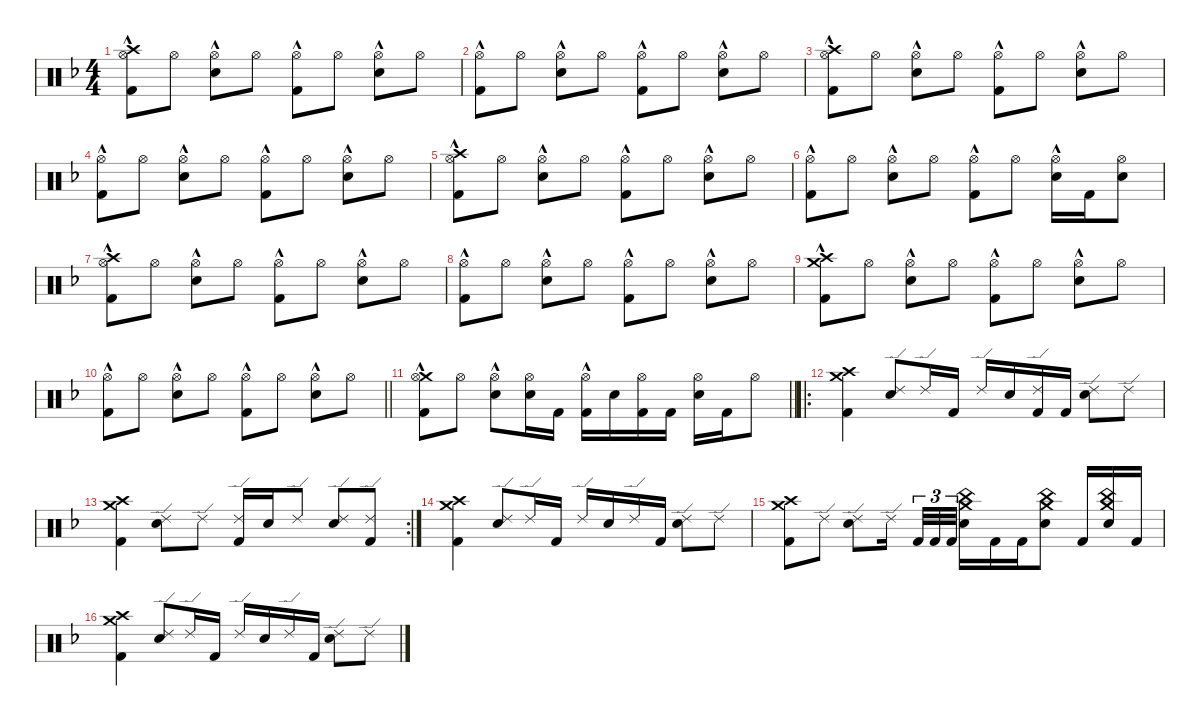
\defaultSystemsLayout 4
\hideDynamics
\bracketExtendMode nobrackets
\singleTrackTrackNamePolicy hidden
\multiTrackTrackNamePolicy hidden
\otherSystemsTrackNameOrientation horizontal
\track ("Martin Lopez - Drums" "drm.") {defaultSystemsLayout 4 instrument percussion}
\staff {score}
\articulation defaults
\ts (4 4)
\tempo (89 hide)
\clef neutral
\ks dminor
("Crash high (hit)"{acc forcenatural} "Hi-Hat (open)"{acc forcenatural} "Kick (hit) 2"{hac acc forcenatural}).8{dy mf beam Down} "Hi-Hat (open)"{acc forcenatural}.8{beam Down} ("Hi-Hat (open)"{acc forcenatural} "Snare (hit) 2"{hac acc forcenatural}).8{beam Down} "Hi-Hat (open)"{acc forcenatural}.8{beam Down} ("Hi-Hat (open)"{acc forcenatural} "Kick (hit) 2"{hac acc forcenatural}).8{beam Down} "Hi-Hat (open)"{acc forcenatural}.8{beam Down} ("Hi-Hat (open)"{acc forcenatural} "Snare (hit) 2"{hac acc forcenatural}).8{beam Down} "Hi-Hat (open)"{acc forcenatural}.8{beam Down} |
\tempo (88 hide)
("Hi-Hat (open)"{acc forcenatural} "Kick (hit) 2"{hac acc forcenatural}).8{beam Down} "Hi-Hat (open)"{acc forcenatural}.8{beam Down} ("Hi-Hat (open)"{acc forcenatural} "Snare (hit) 2"{hac acc forcenatural}).8{beam Down} "Hi-Hat (open)"{acc forcenatural}.8{beam Down} ("Hi-Hat (open)"{acc forcenatural} "Kick (hit) 2"{hac acc forcenatural}).8{beam Down} "Hi-Hat (open)"{acc forcenatural}.8{beam Down} ("Hi-Hat (open)"{acc forcenatural} "Snare (hit) 2"{hac acc forcenatural}).8{beam Down} "Hi-Hat (open)"{acc forcenatural}.8{beam Down} |
\tempo (89 hide)
("Crash high (hit)"{acc forcenatural} "Hi-Hat (open)"{acc forcenatural} "Kick (hit) 2"{hac acc forcenatural}).8{beam Down} "Hi-Hat (open)"{acc forcenatural}.8{beam Down} ("Hi-Hat (open)"{acc forcenatural} "Snare (hit) 2"{hac acc forcenatural}).8{beam Down} "Hi-Hat (open)"{acc forcenatural}.8{beam Down} ("Hi-Hat (open)"{acc forcenatural} "Kick (hit) 2"{hac acc forcenatural}).8{beam Down} "Hi-Hat (open)"{acc forcenatural}.8{beam Down} ("Hi-Hat (open)"{acc forcenatural} "Snare (hit) 2"{hac acc forcenatural}).8{beam Down} "Hi-Hat (open)"{acc forcenatural}.8{beam Down} |
\tempo (88 hide)
("Hi-Hat (open)"{acc forcenatural} "Kick (hit) 2"{hac acc forcenatural}).8{beam Down} "Hi-Hat (open)"{acc forcenatural}.8{beam Down} ("Hi-Hat (open)"{acc forcenatural} "Snare (hit) 2"{hac acc forcenatural}).8{beam Down} "Hi-Hat (open)"{acc forcenatural}.8{beam Down} ("Hi-Hat (open)"{acc forcenatural} "Kick (hit) 2"{hac acc forcenatural}).8{beam Down} "Hi-Hat (open)"{acc forcenatural}.8{beam Down} ("Hi-Hat (open)"{acc forcenatural} "Snare (hit) 2"{hac acc forcenatural}).8{beam Down} "Hi-Hat (open)"{acc forcenatural}.8{beam Down} |
\tempo (89 hide)
\tempo (88 0.99375 hide)
("Crash high (hit)"{acc forcenatural} "Hi-Hat (open)"{acc forcenatural} "Kick (hit) 2"{hac acc forcenatural}).8{beam Down} "Hi-Hat (open)"{acc forcenatural}.8{beam Down} ("Hi-Hat (open)"{acc forcenatural} "Snare (hit) 2"{hac acc forcenatural}).8{beam Down} "Hi-Hat (open)"{acc forcenatural}.8{beam Down} ("Hi-Hat (open)"{acc forcenatural} "Kick (hit) 2"{hac acc forcenatural}).8{beam Down} "Hi-Hat (open)"{acc forcenatural}.8{beam Down} ("Hi-Hat (open)"{acc forcenatural} "Snare (hit) 2"{hac acc forcenatural}).8{beam Down} "Hi-Hat (open)"{acc forcenatural}.8{beam Down} |
("Hi-Hat (open)"{acc forcenatural} "Kick (hit) 2"{hac acc forcenatural}).8{beam Down} "Hi-Hat (open)"{acc forcenatural}.8{beam Down} ("Hi-Hat (open)"{acc forcenatural} "Snare (hit) 2"{hac acc forcenatural}).8{beam Down} "Hi-Hat (open)"{acc forcenatural}.8{beam Down} ("Hi-Hat (open)"{acc forcenatural} "Kick (hit) 2"{hac acc forcenatural}).8{beam Down} "Hi-Hat (open)"{acc forcenatural}.8{beam Down} ("Hi-Hat (open)"{acc forcenatural} "Snare (hit) 2"{hac acc forcenatural}).16{beam Down} "Kick (hit) 2"{acc forcenatural}.16{beam Down} ("Hi-Hat (open)"{acc forcenatural} "Snare (hit) 2"{acc forcenatural}).8{dy f beam Down} |
\tempo (89 0.00625 hide)
\tempo (88 0.99375 hide)
("Crash high (hit)"{acc forcenatural} "Hi-Hat (open)"{acc forcenatural} "Kick (hit) 2"{hac acc forcenatural}).8{dy mf beam Down} "Hi-Hat (open)"{acc forcenatural}.8{beam Down} ("Hi-Hat (open)"{acc forcenatural} "Snare (hit) 2"{hac acc forcenatural}).8{beam Down} "Hi-Hat (open)"{acc forcenatural}.8{beam Down} ("Hi-Hat (open)"{acc forcenatural} "Kick (hit) 2"{hac acc forcenatural}).8{beam Down} "Hi-Hat (open)"{acc forcenatural}.8{beam Down} ("Hi-Hat (open)"{acc forcenatural} "Snare (hit) 2"{hac acc forcenatural}).8{beam Down} "Hi-Hat (open)"{acc forcenatural}.8{beam Down} |
("Hi-Hat (open)"{acc forcenatural} "Kick (hit) 2"{hac acc forcenatural}).8{beam Down} "Hi-Hat (open)"{acc forcenatural}.8{beam Down} ("Hi-Hat (open)"{acc forcenatural} "Snare (hit) 2"{hac acc forcenatural}).8{beam Down} "Hi-Hat (open)"{acc forcenatural}.8{beam Down} ("Hi-Hat (open)"{acc forcenatural} "Kick (hit) 2"{hac acc forcenatural}).8{beam Down} "Hi-Hat (open)"{acc forcenatural}.8{beam Down} ("Hi-Hat (open)"{acc forcenatural} "Snare (hit) 2"{hac acc forcenatural}).8{beam Down} "Hi-Hat (open)"{acc forcenatural}.8{beam Down} |
\tempo (89 hide)
("Crash high (hit)"{acc forcenatural} "Crash medium (hit)"{acc forcenatural} "Kick (hit) 2"{hac acc forcenatural}).8{beam Down} "Hi-Hat (open)"{acc forcenatural}.8{beam Down} ("Hi-Hat (open)"{acc forcenatural} "Snare (hit) 2"{hac acc forcenatural}).8{beam Down} "Hi-Hat (open)"{acc forcenatural}.8{beam Down} ("Hi-Hat (open)"{acc forcenatural} "Kick (hit) 2"{hac acc forcenatural}).8{beam Down} "Hi-Hat (open)"{acc forcenatural}.8{beam Down} ("Hi-Hat (open)"{acc forcenatural} "Snare (hit) 2"{hac acc forcenatural}).8{beam Down} "Hi-Hat (open)"{acc forcenatural}.8{beam Down} |
\tempo (88 hide)
\barLineRight lightlight
("Hi-Hat (open)"{acc forcenatural} "Kick (hit) 2"{hac acc forcenatural}).8{beam Down} "Hi-Hat (open)"{acc forcenatural}.8{beam Down} ("Hi-Hat (open)"{acc forcenatural} "Snare (hit) 2"{hac acc forcenatural}).8{beam Down} "Hi-Hat (open)"{acc forcenatural}.8{beam Down} ("Hi-Hat (open)"{acc forcenatural} "Kick (hit) 2"{hac acc forcenatural}).8{beam Down} "Hi-Hat (open)"{acc forcenatural}.8{beam Down} ("Hi-Hat (open)"{acc forcenatural} "Snare (hit) 2"{hac acc forcenatural}).8{beam Down} "Hi-Hat (open)"{acc forcenatural}.8{beam Down} |
\tempo (89 0.00625 hide)
\barLineRight lightlight
("Crash medium (hit)"{acc forcenatural} "Hi-Hat (open)"{acc forcenatural} "Kick (hit) 2"{hac acc forcenatural}).8{beam Down} "Hi-Hat (open)"{acc forcenatural}.8{beam Down} ("Hi-Hat (open)"{acc forcenatural} "Snare (hit) 2"{hac acc forcenatural}).8{beam Down} ("Hi-Hat (open)"{acc forcenatural} "Snare (hit) 2"{acc forcenatural}).16{beam Down} "Kick (hit) 2"{acc forcenatural}.16{beam Down} ("Hi-Hat (open)"{acc forcenatural} "Kick (hit) 2"{hac acc forcenatural}).16{beam Down} "Snare (hit) 2"{acc forcenatural}.16{beam Down} ("Hi-Hat (open)"{acc forcenatural} "Kick (hit) 2"{acc forcenatural}).16{beam Down} "Kick (hit) 2"{acc forcenatural}.16{beam Down} ("Hi-Hat (open)"{acc forcenatural} "Snare (hit) 2"{acc forcenatural}).16{beam Down} "Kick (hit) 2"{acc forcenatural}.16{beam Down} "Hi-Hat (open)"{acc forcenatural}.8{beam Down} |
\ro
\tempo (88 0.00625 hide)
("Crash high (hit)"{acc forcenatural} "Crash medium (hit)"{acc forcenatural} "Kick (hit) 2"{acc forcenatural}).4{beam Down} ("Ride (edge) 2"{acc forcenatural} "Snare (hit) 2"{acc forcenatural}).8{beam Up} "Ride (edge) 2"{acc forcenatural}.16{beam Up} "Kick (hit) 2"{acc forcenatural}.16{beam Up} "Ride (edge) 2"{acc forcenatural}.16{beam Up} "Snare (hit) 2"{acc forcenatural}.16{beam Up} ("Ride (edge) 2"{acc forcenatural} "Kick (hit) 2"{acc forcenatural}).16{beam Up} "Kick (hit) 2"{acc forcenatural}.16{beam Up} ("Ride (edge) 2"{acc forcenatural} "Snare (hit) 2"{acc forcenatural}).8{beam Down} "Ride (edge) 2"{acc forcenatural}.8{beam Down} |
\rc 2
\tempo (89 hide)
("Crash high (hit)"{acc forcenatural} "Crash medium (hit)"{acc forcenatural} "Kick (hit) 2"{acc forcenatural}).4{beam Down} ("Ride (edge) 2"{acc forcenatural} "Snare (hit) 2"{acc forcenatural}).8{beam Down} "Ride (edge) 2"{acc forcenatural}.8{beam Down} ("Ride (edge) 2"{acc forcenatural} "Kick (hit) 2"{acc forcenatural}).16{beam Up} "Snare (hit) 2"{acc forcenatural}.16{beam Up} "Ride (edge) 2"{acc forcenatural}.8{beam Up} ("Ride (edge) 2"{acc forcenatural} "Snare (hit) 2"{acc forcenatural}).8{beam Up} ("Ride (edge) 2"{acc forcenatural} "Kick (hit) 2"{acc forcenatural}).8{beam Up} |
\tempo (88 hide)
\tempo (89 0.99375 hide)
("Crash high (hit)"{acc forcenatural} "Crash medium (hit)"{acc forcenatural} "Kick (hit) 2"{acc forcenatural}).4{beam Down} ("Ride (edge) 2"{acc forcenatural} "Snare (hit) 2"{acc forcenatural}).8{beam Up} "Ride (edge) 2"{acc forcenatural}.16{beam Up} "Kick (hit) 2"{acc forcenatural}.16{beam Up} "Ride (edge) 2"{acc forcenatural}.16{beam Up} "Snare (hit) 2"{acc forcenatural}.16{beam Up} "Ride (edge) 2"{acc forcenatural}.16{beam Up} "Kick (hit) 2"{acc forcenatural}.16{beam Up} ("Ride (edge) 2"{acc forcenatural} "Snare (hit) 2"{acc forcenatural}).8{beam Down} "Ride (edge) 2"{acc forcenatural}.8{beam Down} |
("Crash high (hit)"{acc forcenatural} "Crash medium (hit)"{acc forcenatural} "Kick (hit) 2"{acc forcenatural}).8{beam Down} "Ride (edge) 2"{acc forcenatural}.8{beam Down} ("Ride (edge) 2"{acc forcenatural} "Snare (hit) 2"{acc forcenatural}).8{beam Down} "Ride (edge) 2"{acc forcenatural}.16{beam Down} "Kick (hit) 2"{acc forcenatural}.32{tu (3 2) beam Up} "Kick (hit) 2"{acc forcenatural}.32{tu (3 2) beam Up} "Kick (hit) 2"{acc forcenatural}.32{tu (3 2) beam Up} ("Crash medium (hit)"{acc forcenatural} "China (hit)"{acc forcenatural} "Snare (hit) 2"{acc forcenatural}).16{beam Down} "Kick (hit) 2"{acc forcenatural}.16{beam Down} "Kick (hit) 2"{acc forcenatural}.16{beam Down} ("Crash medium (hit)"{acc forcenatural} "China (hit)"{acc forcenatural} "Snare (hit) 2"{acc forcenatural}).8{beam Down} "Kick (hit) 2"{acc forcenatural}.16{beam Up} ("Crash medium (hit)"{acc forcenatural} "China (hit)"{acc forcenatural} "Snare (hit) 2"{acc forcenatural}).16{beam Up} "Kick (hit) 2"{acc forcenatural}.16{beam Up} |
\tempo (88 0.00625 hide)
\tempo (89 0.99375 hide)
("Crash high (hit)"{acc forcenatural} "Crash medium (hit)"{acc forcenatural} "Kick (hit) 2"{acc forcenatural}).4{beam Down} ("Ride (edge) 2"{acc forcenatural} "Snare (hit) 2"{acc forcenatural}).8{beam Up} "Ride (edge) 2"{acc forcenatural}.16{beam Up} "Kick (hit) 2"{acc forcenatural}.16{beam Up} "Ride (edge) 2"{acc forcenatural}.16{beam Up} "Snare (hit) 2"{acc forcenatural}.16{beam Up} "Ride (edge) 2"{acc forcenatural}.16{beam Up} "Kick (hit) 2"{acc forcenatural}.16{beam Up} ("Ride (edge) 2"{acc forcenatural} "Snare (hit) 2"{acc forcenatural}).8{beam Down} "Ride (edge) 2"{acc forcenatural}.8{beam Down}
